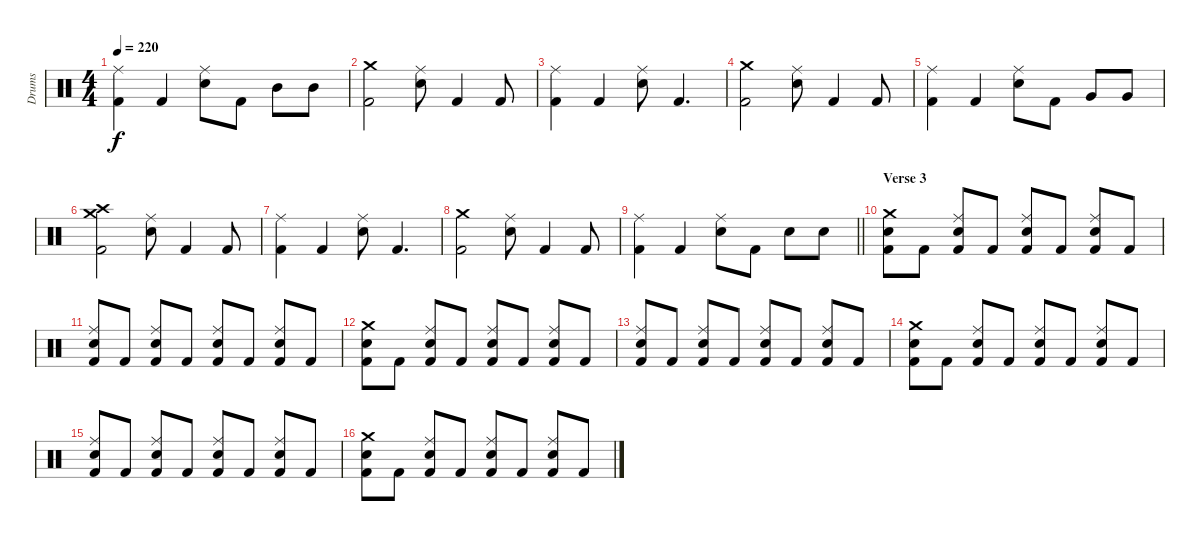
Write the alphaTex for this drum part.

\track ("Drums" "Drums") {instrument percussion}
\staff {score}
\articulation defaults
\ts (4 4)
\tempo 220
\clef neutral
\ks c
("Kick (hit) 2" "Ride (middle)").4{dy f} "Kick (hit) 2".4 ("Snare (hit) 2" "Ride (middle)").8 "Kick (hit) 2".8 "Mid Tom (hit)".8 "Mid Tom (hit)".8 |
("Kick (hit) 2" "Crash medium (hit)").2 ("Snare (hit) 2" "Ride (middle)").8 "Kick (hit) 2".4 "Kick (hit) 2".8 |
("Kick (hit) 2" "Ride (middle)").4 "Kick (hit) 2".4 ("Snare (hit) 2" "Ride (middle)").8 "Kick (hit) 2".4{d} |
("Kick (hit) 2" "Crash medium (hit)").2 ("Snare (hit) 2" "Ride (middle)").8 "Kick (hit) 2".4 "Kick (hit) 2".8 |
("Kick (hit) 2" "Ride (middle)").4 "Kick (hit) 2".4 ("Snare (hit) 2" "Ride (middle)").8 "Kick (hit) 2".8 "Very Low Tom (hit)".8 "Very Low Tom (hit)".8 |
("Kick (hit) 2" "Crash high (hit)" "Crash medium (hit)").2 ("Snare (hit) 2" "Ride (middle)").8 "Kick (hit) 2".4 "Kick (hit) 2".8 |
("Kick (hit) 2" "Ride (middle)").4 "Kick (hit) 2".4 ("Snare (hit) 2" "Ride (middle)").8 "Kick (hit) 2".4{d} |
("Kick (hit) 2" "Crash medium (hit)").2 ("Snare (hit) 2" "Ride (middle)").8 "Kick (hit) 2".4 "Kick (hit) 2".8 |
\barLineRight lightlight
("Kick (hit) 2" "Ride (middle)").4 "Kick (hit) 2".4 ("Snare (hit) 2" "Ride (middle)").8 "Kick (hit) 2".8 "Snare (hit) 2".8 "Snare (hit) 2".8 |
\section ("" "Verse 3")
("Kick (hit) 2" "Snare (hit) 2" "Crash medium (hit)").8 "Kick (hit) 2".8 ("Kick (hit) 2" "Snare (hit) 2" "Ride (middle)").8 "Kick (hit) 2".8 ("Kick (hit) 2" "Snare (hit) 2" "Ride (middle)").8 "Kick (hit) 2".8 ("Kick (hit) 2" "Snare (hit) 2" "Ride (middle)").8 "Kick (hit) 2".8 |
("Kick (hit) 2" "Snare (hit) 2" "Ride (middle)").8 "Kick (hit) 2".8 ("Kick (hit) 2" "Snare (hit) 2" "Ride (middle)").8 "Kick (hit) 2".8 ("Kick (hit) 2" "Snare (hit) 2" "Ride (middle)").8 "Kick (hit) 2".8 ("Kick (hit) 2" "Snare (hit) 2" "Ride (middle)").8 "Kick (hit) 2".8 |
("Kick (hit) 2" "Snare (hit) 2" "Crash medium (hit)").8 "Kick (hit) 2".8 ("Kick (hit) 2" "Snare (hit) 2" "Ride (middle)").8 "Kick (hit) 2".8 ("Kick (hit) 2" "Snare (hit) 2" "Ride (middle)").8 "Kick (hit) 2".8 ("Kick (hit) 2" "Snare (hit) 2" "Ride (middle)").8 "Kick (hit) 2".8 |
("Kick (hit) 2" "Snare (hit) 2" "Ride (middle)").8 "Kick (hit) 2".8 ("Kick (hit) 2" "Snare (hit) 2" "Ride (middle)").8 "Kick (hit) 2".8 ("Kick (hit) 2" "Snare (hit) 2" "Ride (middle)").8 "Kick (hit) 2".8 ("Kick (hit) 2" "Snare (hit) 2" "Ride (middle)").8 "Kick (hit) 2".8 |
("Kick (hit) 2" "Snare (hit) 2" "Crash medium (hit)").8 "Kick (hit) 2".8 ("Kick (hit) 2" "Snare (hit) 2" "Ride (middle)").8 "Kick (hit) 2".8 ("Kick (hit) 2" "Snare (hit) 2" "Ride (middle)").8 "Kick (hit) 2".8 ("Kick (hit) 2" "Snare (hit) 2" "Ride (middle)").8 "Kick (hit) 2".8 |
("Kick (hit) 2" "Snare (hit) 2" "Ride (middle)").8 "Kick (hit) 2".8 ("Kick (hit) 2" "Snare (hit) 2" "Ride (middle)").8 "Kick (hit) 2".8 ("Kick (hit) 2" "Snare (hit) 2" "Ride (middle)").8 "Kick (hit) 2".8 ("Kick (hit) 2" "Snare (hit) 2" "Ride (middle)").8 "Kick (hit) 2".8 |
("Kick (hit) 2" "Snare (hit) 2" "Crash medium (hit)").8 "Kick (hit) 2".8 ("Kick (hit) 2" "Snare (hit) 2" "Ride (middle)").8 "Kick (hit) 2".8 ("Kick (hit) 2" "Snare (hit) 2" "Ride (middle)").8 "Kick (hit) 2".8 ("Kick (hit) 2" "Snare (hit) 2" "Ride (middle)").8 "Kick (hit) 2".8
